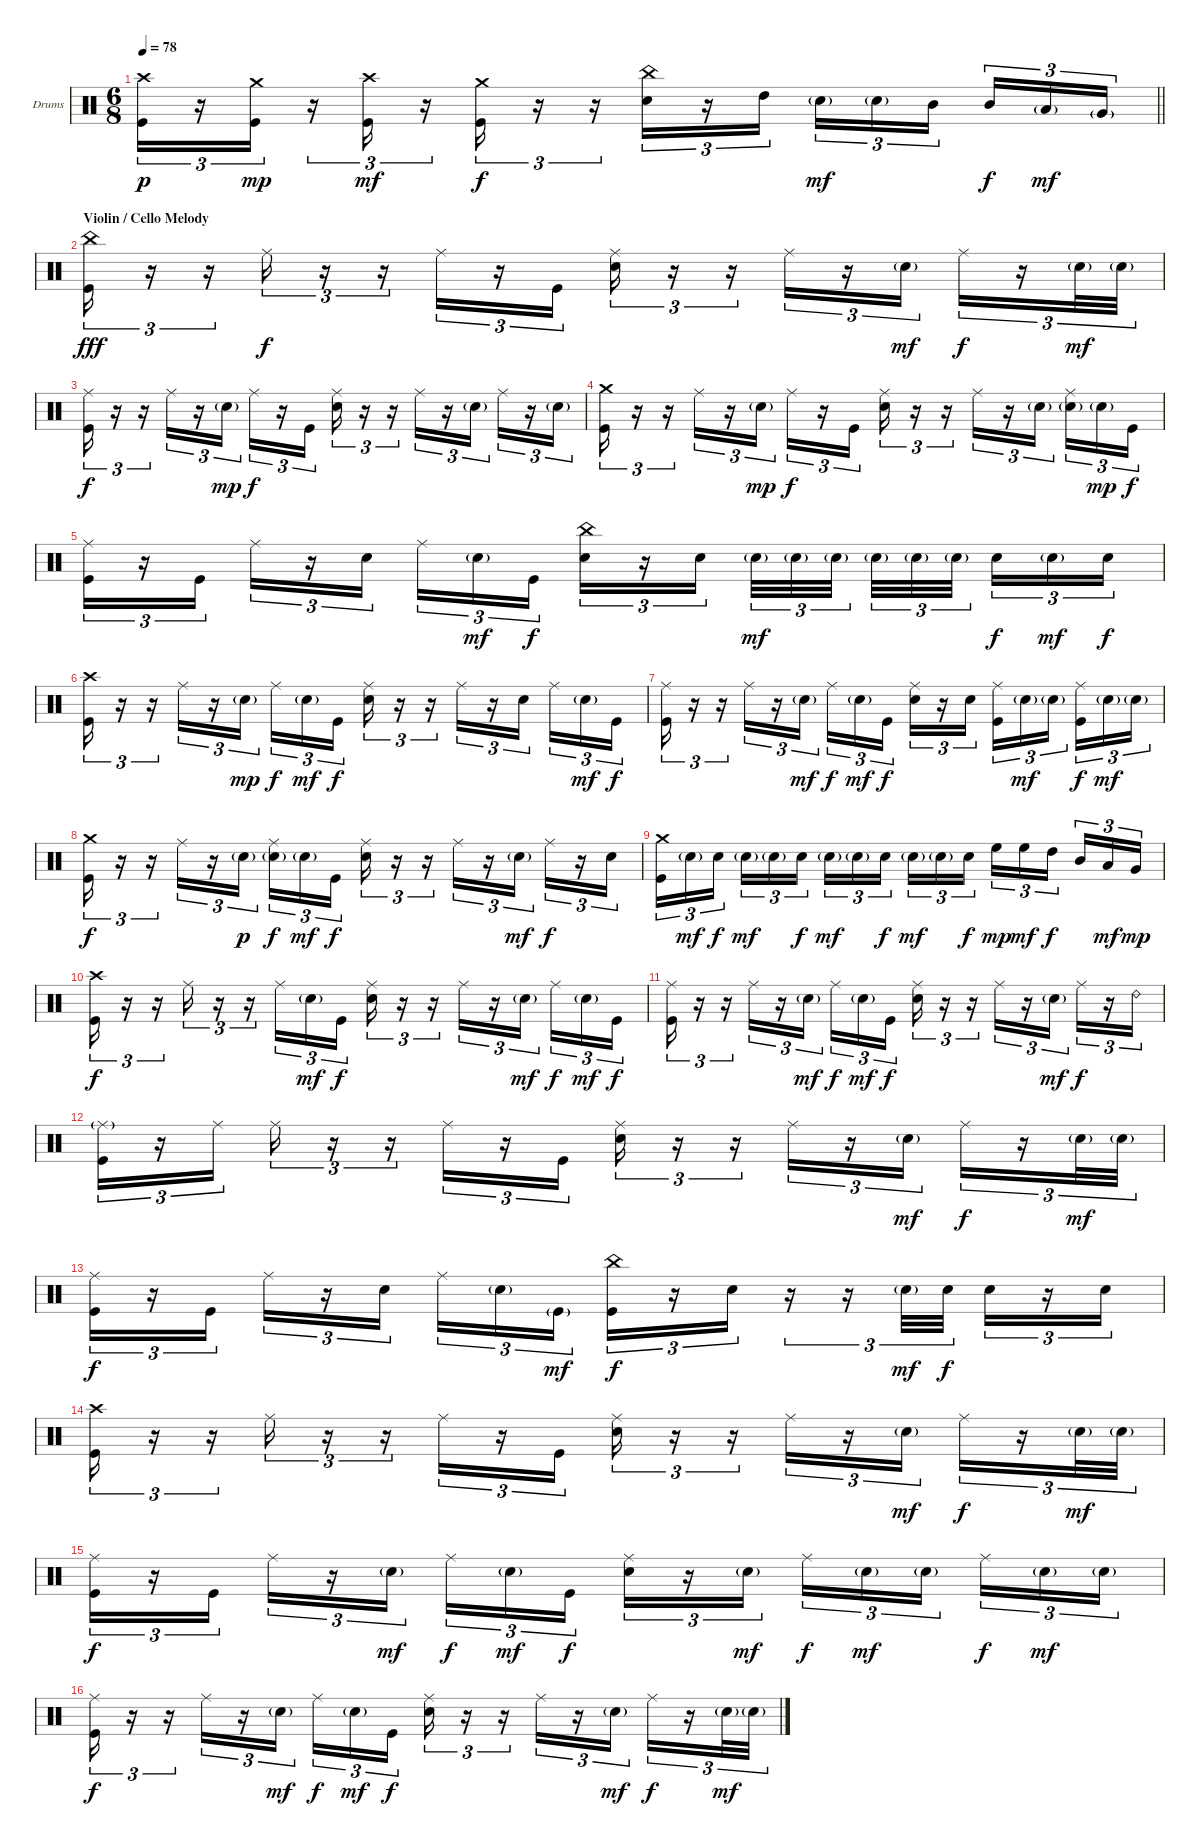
\bracketExtendMode nobrackets
\firstSystemTrackNameOrientation horizontal
\otherSystemsTrackNameOrientation horizontal
\track ("Drumkit" "Drums") {instrument percussion}
\staff {score}
\articulation defaults
\ts (6 8)
\tempo 78
\clef neutral
\barLineRight lightlight
\ks c
("Crash high (hit)" "Kick (hit)").16{tu (3 2) dy p} r.16{tu (3 2)} ("Crash medium (hit)" "Kick (hit)").16{tu (3 2) dy mp} r.16{tu (3 2)} ("Crash high (hit)" "Kick (hit)").16{tu (3 2) dy mf} r.16{tu (3 2)} ("Crash medium (hit)" "Kick (hit)").16{tu (3 2) dy f} r.16{tu (3 2)} r.16{tu (3 2)} ("China (hit)" "Snare (hit) 2").16{tu (3 2)} r.16{tu (3 2)} "High Tom (hit)".16{tu (3 2)} "Snare (hit) 2"{g}.16{tu (3 2) dy mf} "Snare (hit) 2"{g}.16{tu (3 2)} "Mid Tom (hit)".16{tu (3 2)} "Mid Tom (hit)".16{tu (3 2) dy f} "Low Tom (hit)"{g}.16{tu (3 2) dy mf} "Very Low Tom (hit)"{g}.16{tu (3 2)} |
\section ("" "Violin / Cello Melody")
("China (hit)" "Kick (hit)").16{tu (3 2) dy fff} r.16{tu (3 2)} r.16{tu (3 2)} "Ride (middle)".16{tu (3 2) dy f} r.16{tu (3 2)} r.16{tu (3 2)} "Ride (middle)".16{tu (3 2)} r.16{tu (3 2)} "Kick (hit)".16{tu (3 2)} ("Ride (middle)" "Snare (hit) 2").16{tu (3 2)} r.16{tu (3 2)} r.16{tu (3 2)} "Ride (middle)".16{tu (3 2)} r.16{tu (3 2)} "Snare (hit) 2"{g}.16{tu (3 2) dy mf} "Ride (middle)".16{tu (3 2) dy f} r.16{tu (3 2)} "Snare (hit) 2"{g}.32{tu (3 2) dy mf} "Snare (hit) 2"{g}.32{tu (3 2)} |
("Ride (middle)" "Kick (hit)").16{tu (3 2) dy f} r.16{tu (3 2)} r.16{tu (3 2)} "Ride (middle)".16{tu (3 2)} r.16{tu (3 2)} "Snare (hit) 2"{g}.16{tu (3 2) dy mp} "Ride (middle)".16{tu (3 2) dy f} r.16{tu (3 2)} "Kick (hit)".16{tu (3 2)} ("Ride (middle)" "Snare (hit) 2").16{tu (3 2)} r.16{tu (3 2)} r.16{tu (3 2)} "Ride (middle)".16{tu (3 2)} r.16{tu (3 2)} "Snare (hit) 2"{g}.16{tu (3 2)} "Ride (middle)".16{tu (3 2)} r.16{tu (3 2)} "Snare (hit) 2"{g}.16{tu (3 2)} |
("Crash medium (hit)" "Kick (hit)").16{tu (3 2)} r.16{tu (3 2)} r.16{tu (3 2)} "Ride (middle)".16{tu (3 2)} r.16{tu (3 2)} "Snare (hit) 2"{g}.16{tu (3 2) dy mp} "Ride (middle)".16{tu (3 2) dy f} r.16{tu (3 2)} "Kick (hit)".16{tu (3 2)} ("Ride (middle)" "Snare (hit) 2").16{tu (3 2)} r.16{tu (3 2)} r.16{tu (3 2)} "Ride (middle)".16{tu (3 2)} r.16{tu (3 2)} "Snare (hit) 2"{g}.16{tu (3 2)} ("Ride (middle)" "Snare (hit) 2"{g}).16{tu (3 2)} "Snare (hit) 2"{g}.16{tu (3 2) dy mp} "Kick (hit)".16{tu (3 2) dy f} |
("Ride (middle)" "Kick (hit)").16{tu (3 2)} r.16{tu (3 2)} "Kick (hit)".16{tu (3 2)} "Ride (middle)".16{tu (3 2)} r.16{tu (3 2)} "Snare (hit) 2".16{tu (3 2)} "Ride (middle)".16{tu (3 2)} "Snare (hit) 2"{g}.16{tu (3 2) dy mf} "Kick (hit)".16{tu (3 2) dy f} ("China (hit)" "Snare (hit) 2").16{tu (3 2)} r.16{tu (3 2)} "Snare (hit) 2".16{tu (3 2)} "Snare (hit) 2"{g}.32{tu (3 2) dy mf} "Snare (hit) 2"{g}.32{tu (3 2)} "Snare (hit) 2"{g}.32{tu (3 2)} "Snare (hit) 2"{g}.32{tu (3 2)} "Snare (hit) 2"{g}.32{tu (3 2)} "Snare (hit) 2"{g}.32{tu (3 2)} "Snare (hit) 2".16{tu (3 2) dy f} "Snare (hit) 2"{g}.16{tu (3 2) dy mf} "Snare (hit) 2".16{tu (3 2) dy f} |
("Crash high (hit)" "Kick (hit)").16{tu (3 2)} r.16{tu (3 2)} r.16{tu (3 2)} "Ride (middle)".16{tu (3 2)} r.16{tu (3 2)} "Snare (hit) 2"{g}.16{tu (3 2) dy mp} "Ride (middle)".16{tu (3 2) dy f} "Snare (hit) 2"{g}.16{tu (3 2) dy mf} "Kick (hit)".16{tu (3 2) dy f} ("Ride (middle)" "Snare (hit) 2").16{tu (3 2)} r.16{tu (3 2)} r.16{tu (3 2)} "Ride (middle)".16{tu (3 2)} r.16{tu (3 2)} "Snare (hit) 2".16{tu (3 2)} "Ride (middle)".16{tu (3 2)} "Snare (hit) 2"{g}.16{tu (3 2) dy mf} "Kick (hit)".16{tu (3 2) dy f} |
("Ride (middle)" "Kick (hit)").16{tu (3 2)} r.16{tu (3 2)} r.16{tu (3 2)} "Ride (middle)".16{tu (3 2)} r.16{tu (3 2)} "Snare (hit) 2"{g}.16{tu (3 2) dy mf} "Ride (middle)".16{tu (3 2) dy f} "Snare (hit) 2"{g}.16{tu (3 2) dy mf} "Kick (hit)".16{tu (3 2) dy f} ("Ride (middle)" "Snare (hit) 2").16{tu (3 2)} r.16{tu (3 2)} "Snare (hit) 2".16{tu (3 2)} ("Ride (middle)" "Kick (hit)").16{tu (3 2)} "Snare (hit) 2"{g}.16{tu (3 2) dy mf} "Snare (hit) 2"{g}.16{tu (3 2)} ("Ride (middle)" "Kick (hit)").16{tu (3 2) dy f} "Snare (hit) 2"{g}.16{tu (3 2) dy mf} "Snare (hit) 2"{g}.16{tu (3 2)} |
("Crash medium (hit)" "Kick (hit)").16{tu (3 2) dy f} r.16{tu (3 2)} r.16{tu (3 2)} "Ride (middle)".16{tu (3 2)} r.16{tu (3 2)} "Snare (hit) 2"{g}.16{tu (3 2) dy p} ("Ride (middle)" "Snare (hit) 2"{g}).16{tu (3 2) dy f} "Snare (hit) 2"{g}.16{tu (3 2) dy mf} "Kick (hit)".16{tu (3 2) dy f} ("Ride (middle)" "Snare (hit) 2").16{tu (3 2)} r.16{tu (3 2)} r.16{tu (3 2)} "Ride (middle)".16{tu (3 2)} r.16{tu (3 2)} "Snare (hit) 2"{g}.16{tu (3 2) dy mf} "Ride (middle)".16{tu (3 2) dy f} r.16{tu (3 2)} "Snare (hit) 2".16{tu (3 2)} |
("Crash medium (hit)" "Kick (hit)").16{tu (3 2)} "Snare (hit) 2"{g}.16{tu (3 2) dy mf} "Snare (hit) 2".16{tu (3 2) dy f} "Snare (hit) 2"{g}.16{tu (3 2) dy mf} "Snare (hit) 2"{g}.16{tu (3 2)} "Snare (hit) 2".16{tu (3 2) dy f} "Snare (hit) 2"{g}.16{tu (3 2) dy mf} "Snare (hit) 2"{g}.16{tu (3 2)} "Snare (hit) 2".16{tu (3 2) dy f} "Snare (hit) 2"{g}.16{tu (3 2) dy mf} "Snare (hit) 2"{g}.16{tu (3 2)} "Snare (hit) 2".16{tu (3 2) dy f} "High Floor Tom (hit)".16{tu (3 2) dy mp} "High Floor Tom (hit)".16{tu (3 2) dy mf} "High Tom (hit)".16{tu (3 2) dy f} "Mid Tom (hit)".16{tu (3 2)} "Low Tom (hit)".16{tu (3 2) dy mf} "Very Low Tom (hit)".16{tu (3 2) dy mp} |
("Crash high (hit)" "Kick (hit)").16{tu (3 2) dy f} r.16{tu (3 2)} r.16{tu (3 2)} "Ride (middle)".16{tu (3 2)} r.16{tu (3 2)} r.16{tu (3 2)} "Ride (middle)".16{tu (3 2)} "Snare (hit) 2"{g}.16{tu (3 2) dy mf} "Kick (hit)".16{tu (3 2) dy f} ("Ride (middle)" "Snare (hit) 2").16{tu (3 2)} r.16{tu (3 2)} r.16{tu (3 2)} "Ride (middle)".16{tu (3 2)} r.16{tu (3 2)} "Snare (hit) 2"{g}.16{tu (3 2) dy mf} "Ride (middle)".16{tu (3 2) dy f} "Snare (hit) 2"{g}.16{tu (3 2) dy mf} "Kick (hit)".16{tu (3 2) dy f} |
("Ride (middle)" "Kick (hit)").16{tu (3 2)} r.16{tu (3 2)} r.16{tu (3 2)} "Ride (middle)".16{tu (3 2)} r.16{tu (3 2)} "Snare (hit) 2"{g}.16{tu (3 2) dy mf} "Ride (middle)".16{tu (3 2) dy f} "Snare (hit) 2"{g}.16{tu (3 2) dy mf} "Kick (hit)".16{tu (3 2) dy f} ("Ride (middle)" "Snare (hit) 2").16{tu (3 2)} r.16{tu (3 2)} r.16{tu (3 2)} "Ride (middle)".16{tu (3 2)} r.16{tu (3 2)} "Snare (hit) 2"{g}.16{tu (3 2) dy mf} "Ride (middle)".16{tu (3 2) dy f} r.16{tu (3 2)} "Ride (bell) 2".16{tu (3 2)} |
("Ride (middle)"{g} "Kick (hit)").16{tu (3 2)} r.16{tu (3 2)} "Ride (middle)".16{tu (3 2)} "Ride (middle)".16{tu (3 2)} r.16{tu (3 2)} r.16{tu (3 2)} "Ride (middle)".16{tu (3 2)} r.16{tu (3 2)} "Kick (hit)".16{tu (3 2)} ("Ride (middle)" "Snare (hit) 2").16{tu (3 2)} r.16{tu (3 2)} r.16{tu (3 2)} "Ride (middle)".16{tu (3 2)} r.16{tu (3 2)} "Snare (hit) 2"{g}.16{tu (3 2) dy mf} "Ride (middle)".16{tu (3 2) dy f} r.16{tu (3 2)} "Snare (hit) 2"{g}.32{tu (3 2) dy mf} "Snare (hit) 2"{g}.32{tu (3 2)} |
("Ride (middle)" "Kick (hit)").16{tu (3 2) dy f} r.16{tu (3 2)} "Kick (hit)".16{tu (3 2)} "Ride (middle)".16{tu (3 2)} r.16{tu (3 2)} "Snare (hit) 2".16{tu (3 2)} "Ride (middle)".16{tu (3 2)} "Snare (hit) 2"{g}.16{tu (3 2)} "Kick (hit)"{g}.16{tu (3 2) dy mf} ("China (hit)" "Kick (hit)").16{tu (3 2) dy f} r.16{tu (3 2)} "Snare (hit) 2".16{tu (3 2)} r.16{tu (3 2)} r.16{tu (3 2)} "Snare (hit) 2"{g}.32{tu (3 2) dy mf} "Snare (hit) 2".32{tu (3 2) dy f} "Snare (hit) 2".16{tu (3 2)} r.16{tu (3 2)} "Snare (hit) 2".16{tu (3 2)} |
("Crash high (hit)" "Kick (hit)").16{tu (3 2)} r.16{tu (3 2)} r.16{tu (3 2)} "Ride (middle)".16{tu (3 2)} r.16{tu (3 2)} r.16{tu (3 2)} "Ride (middle)".16{tu (3 2)} r.16{tu (3 2)} "Kick (hit)".16{tu (3 2)} ("Ride (middle)" "Snare (hit) 2").16{tu (3 2)} r.16{tu (3 2)} r.16{tu (3 2)} "Ride (middle)".16{tu (3 2)} r.16{tu (3 2)} "Snare (hit) 2"{g}.16{tu (3 2) dy mf} "Ride (middle)".16{tu (3 2) dy f} r.16{tu (3 2)} "Snare (hit) 2"{g}.32{tu (3 2) dy mf} "Snare (hit) 2"{g}.32{tu (3 2)} |
("Ride (middle)" "Kick (hit)").16{tu (3 2) dy f} r.16{tu (3 2)} "Kick (hit)".16{tu (3 2)} "Ride (middle)".16{tu (3 2)} r.16{tu (3 2)} "Snare (hit) 2"{g}.16{tu (3 2) dy mf} "Ride (middle)".16{tu (3 2) dy f} "Snare (hit) 2"{g}.16{tu (3 2) dy mf} "Kick (hit)".16{tu (3 2) dy f} ("Ride (middle)" "Snare (hit) 2").16{tu (3 2)} r.16{tu (3 2)} "Snare (hit) 2"{g}.16{tu (3 2) dy mf} "Ride (middle)".16{tu (3 2) dy f} "Snare (hit) 2"{g}.16{tu (3 2) dy mf} "Snare (hit) 2"{g}.16{tu (3 2)} "Ride (middle)".16{tu (3 2) dy f} "Snare (hit) 2"{g}.16{tu (3 2) dy mf} "Snare (hit) 2"{g}.16{tu (3 2)} |
("Ride (middle)" "Kick (hit)").16{tu (3 2) dy f} r.16{tu (3 2)} r.16{tu (3 2)} "Ride (middle)".16{tu (3 2)} r.16{tu (3 2)} "Snare (hit) 2"{g}.16{tu (3 2) dy mf} "Ride (middle)".16{tu (3 2) dy f} "Snare (hit) 2"{g}.16{tu (3 2) dy mf} "Kick (hit)".16{tu (3 2) dy f} ("Ride (middle)" "Snare (hit) 2").16{tu (3 2)} r.16{tu (3 2)} r.16{tu (3 2)} "Ride (middle)".16{tu (3 2)} r.16{tu (3 2)} "Snare (hit) 2"{g}.16{tu (3 2) dy mf} "Ride (middle)".16{tu (3 2) dy f} r.16{tu (3 2)} "Snare (hit) 2"{g}.32{tu (3 2) dy mf} "Snare (hit) 2"{g}.32{tu (3 2)}
